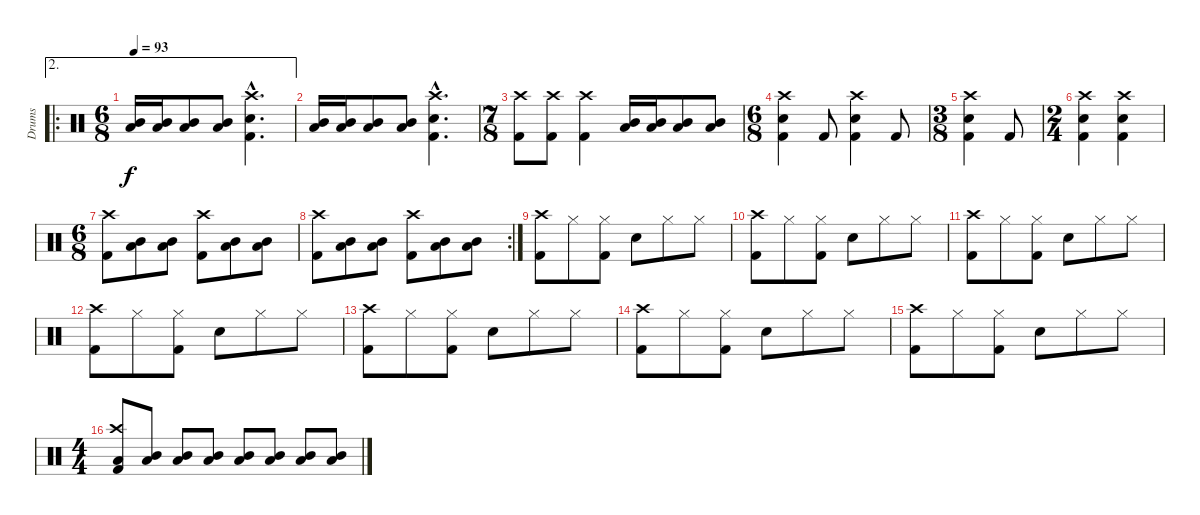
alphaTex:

\track ("Drums" "Drums") {instrument percussion}
\staff {score}
\articulation defaults
\ae 2
\ro
\ts (6 8)
\tempo 93
\clef neutral
\ks c
("Mid Tom (hit)" "Low Tom (hit)").16{dy f} ("Mid Tom (hit)" "Low Tom (hit)").16 ("Mid Tom (hit)" "Low Tom (hit)").8 ("Mid Tom (hit)" "Low Tom (hit)").8 ("Crash high (hit)"{hac} "Snare (hit) 2"{hac} "Kick (hit) 2"{hac}).4{d} |
("Mid Tom (hit)" "Low Tom (hit)").16 ("Mid Tom (hit)" "Low Tom (hit)").16 ("Mid Tom (hit)" "Low Tom (hit)").8 ("Mid Tom (hit)" "Low Tom (hit)").8 ("Crash high (hit)"{hac} "Snare (hit) 2"{hac} "Kick (hit) 2"{hac}).4{d} |
\ts (7 8)
("Crash high (hit)" "Kick (hit) 2").8 ("Crash high (hit)" "Kick (hit) 2").8 ("Crash high (hit)" "Kick (hit) 2").4 ("Mid Tom (hit)" "Low Tom (hit)").16 ("Mid Tom (hit)" "Low Tom (hit)").16 ("Mid Tom (hit)" "Low Tom (hit)").8 ("Mid Tom (hit)" "Low Tom (hit)").8 |
\ts (6 8)
("Crash high (hit)" "Snare (hit) 2" "Kick (hit) 2").4 "Kick (hit) 2".8 ("Crash high (hit)" "Snare (hit) 2" "Kick (hit) 2").4 "Kick (hit) 2".8 |
\ts (3 8)
("Crash high (hit)" "Snare (hit) 2" "Kick (hit) 2").4 "Kick (hit) 2".8 |
\ts (2 4)
("Crash high (hit)" "Snare (hit) 2" "Kick (hit) 2").4 ("Crash high (hit)" "Snare (hit) 2" "Kick (hit) 2").4 |
\ts (6 8)
("Crash high (hit)" "Kick (hit) 2").8 ("Mid Tom (hit)" "Low Tom (hit)").8 ("Mid Tom (hit)" "Low Tom (hit)").8 ("Crash high (hit)" "Kick (hit) 2").8 ("Mid Tom (hit)" "Low Tom (hit)").8 ("Mid Tom (hit)" "Low Tom (hit)").8 |
\rc 2
("Crash high (hit)" "Kick (hit) 2").8 ("Mid Tom (hit)" "Low Tom (hit)").8 ("Mid Tom (hit)" "Low Tom (hit)").8 ("Crash high (hit)" "Kick (hit) 2").8 ("Mid Tom (hit)" "Low Tom (hit)").8 ("Mid Tom (hit)" "Low Tom (hit)").8 |
("Crash high (hit)" "Kick (hit) 2").8 "Hi-Hat (closed)".8 ("Hi-Hat (closed)" "Kick (hit) 2").8 "Snare (hit) 2".8 "Hi-Hat (closed)".8 "Hi-Hat (closed)".8 |
("Crash high (hit)" "Kick (hit) 2").8 "Hi-Hat (closed)".8 ("Hi-Hat (closed)" "Kick (hit) 2").8 "Snare (hit) 2".8 "Hi-Hat (closed)".8 "Hi-Hat (closed)".8 |
("Crash high (hit)" "Kick (hit) 2").8 "Hi-Hat (closed)".8 ("Hi-Hat (closed)" "Kick (hit) 2").8 "Snare (hit) 2".8 "Hi-Hat (closed)".8 "Hi-Hat (closed)".8 |
("Crash high (hit)" "Kick (hit) 2").8 "Hi-Hat (closed)".8 ("Hi-Hat (closed)" "Kick (hit) 2").8 "Snare (hit) 2".8 "Hi-Hat (closed)".8 "Hi-Hat (closed)".8 |
("Crash high (hit)" "Kick (hit) 2").8 "Hi-Hat (closed)".8 ("Hi-Hat (closed)" "Kick (hit) 2").8 "Snare (hit) 2".8 "Hi-Hat (closed)".8 "Hi-Hat (closed)".8 |
("Crash high (hit)" "Kick (hit) 2").8 "Hi-Hat (closed)".8 ("Hi-Hat (closed)" "Kick (hit) 2").8 "Snare (hit) 2".8 "Hi-Hat (closed)".8 "Hi-Hat (closed)".8 |
("Crash high (hit)" "Kick (hit) 2").8 "Hi-Hat (closed)".8 ("Hi-Hat (closed)" "Kick (hit) 2").8 "Snare (hit) 2".8 "Hi-Hat (closed)".8 "Hi-Hat (closed)".8 |
\ts (4 4)
("Crash high (hit)" "Low Tom (hit)" "Kick (hit) 2").8 ("Mid Tom (hit)" "Low Tom (hit)").8 ("Mid Tom (hit)" "Low Tom (hit)").8 ("Mid Tom (hit)" "Low Tom (hit)").8 ("Mid Tom (hit)" "Low Tom (hit)").8 ("Mid Tom (hit)" "Low Tom (hit)").8 ("Mid Tom (hit)" "Low Tom (hit)").8 ("Mid Tom (hit)" "Low Tom (hit)").8
